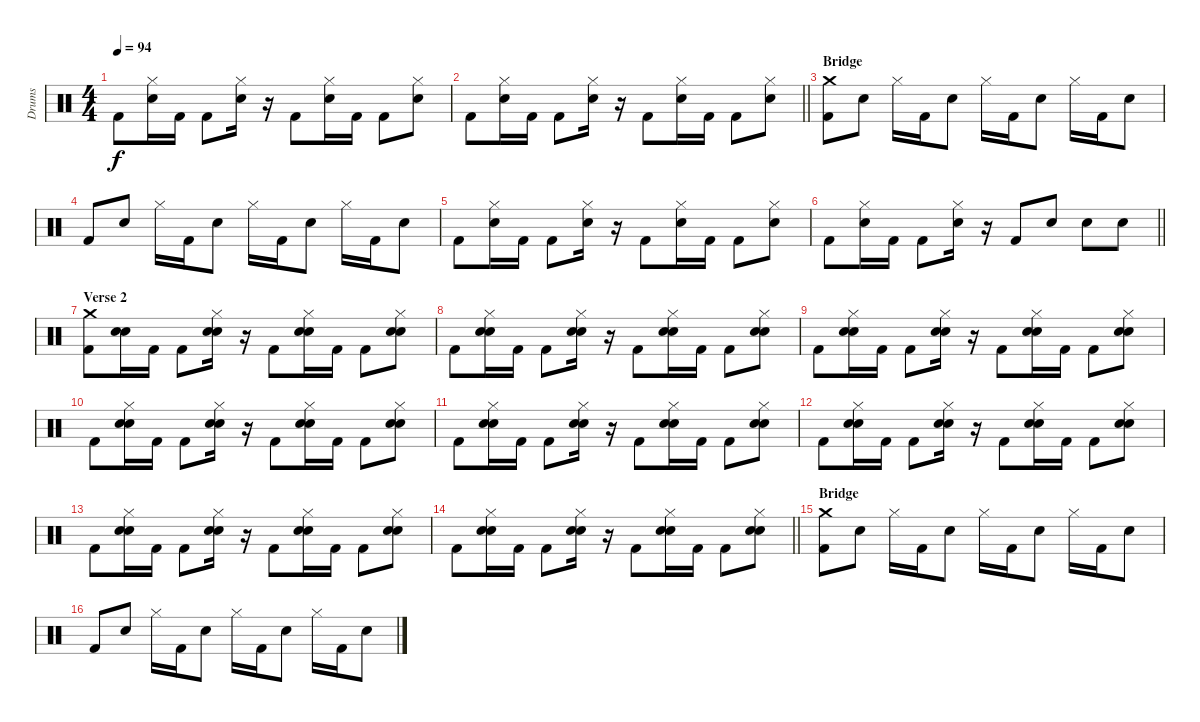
\track ("Drums" "Drums") {instrument percussion}
\staff {score}
\articulation defaults
\ts (4 4)
\tempo 94
\clef neutral
\ks c "Kick (hit) 2".8{dy f}
("Hi-Hat (closed)" "Electric Snare (hit)").16 "Kick (hit) 2".16 "Kick (hit) 2".8 ("Hi-Hat (closed)" "Electric Snare (hit)").16 r.16 "Kick (hit) 2".8 ("Hi-Hat (closed)" "Electric Snare (hit)").16 "Kick (hit) 2".16 "Kick (hit) 2".8 ("Hi-Hat (closed)" "Electric Snare (hit)").8 |
\barLineRight lightlight "Kick (hit) 2".8
("Hi-Hat (closed)" "Electric Snare (hit)").16 "Kick (hit) 2".16 "Kick (hit) 2".8 ("Hi-Hat (closed)" "Electric Snare (hit)").16 r.16 "Kick (hit) 2".8 ("Hi-Hat (closed)" "Electric Snare (hit)").16 "Kick (hit) 2".16 "Kick (hit) 2".8 ("Hi-Hat (closed)" "Electric Snare (hit)").8 |
\section ("" "Bridge")
("Crash medium (hit)" "Kick (hit) 2").8 "Electric Snare (hit)".8 "Hi-Hat (closed)".16 "Kick (hit) 2".16 "Electric Snare (hit)".8 "Hi-Hat (closed)".16 "Kick (hit) 2".16 "Electric Snare (hit)".8 "Hi-Hat (closed)".16 "Kick (hit) 2".16 "Electric Snare (hit)".8 |
"Kick (hit) 2".8 "Electric Snare (hit)".8 "Hi-Hat (closed)".16 "Kick (hit) 2".16 "Electric Snare (hit)".8 "Hi-Hat (closed)".16 "Kick (hit) 2".16 "Electric Snare (hit)".8 "Hi-Hat (closed)".16 "Kick (hit) 2".16 "Electric Snare (hit)".8 |
"Kick (hit) 2".8 ("Hi-Hat (closed)" "Electric Snare (hit)").16 "Kick (hit) 2".16 "Kick (hit) 2".8 ("Hi-Hat (closed)" "Electric Snare (hit)").16 r.16 "Kick (hit) 2".8 ("Hi-Hat (closed)" "Electric Snare (hit)").16 "Kick (hit) 2".16 "Kick (hit) 2".8 ("Hi-Hat (closed)" "Electric Snare (hit)").8 |
\barLineRight lightlight "Kick (hit) 2".8
("Hi-Hat (closed)" "Electric Snare (hit)").16 "Kick (hit) 2".16 "Kick (hit) 2".8 ("Hi-Hat (closed)" "Electric Snare (hit)").16 r.16 "Kick (hit) 2".8 "Electric Snare (hit)".8 "Electric Snare (hit)".8 "Electric Snare (hit)".8 |
\section ("" "Verse 2")
("Crash medium (hit)" "Kick (hit) 2").8 ("Hand Clap (hit)" "Electric Snare (hit)").16 "Kick (hit) 2".16 "Kick (hit) 2".8 ("Hi-Hat (closed)" "Hand Clap (hit)" "Electric Snare (hit)").16 r.16 "Kick (hit) 2".8 ("Hi-Hat (closed)" "Hand Clap (hit)" "Electric Snare (hit)").16 "Kick (hit) 2".16 "Kick (hit) 2".8 ("Hi-Hat (closed)" "Hand Clap (hit)" "Electric Snare (hit)").8 |
"Kick (hit) 2".8 ("Hi-Hat (closed)" "Hand Clap (hit)" "Electric Snare (hit)").16 "Kick (hit) 2".16 "Kick (hit) 2".8 ("Hi-Hat (closed)" "Hand Clap (hit)" "Electric Snare (hit)").16 r.16 "Kick (hit) 2".8 ("Hi-Hat (closed)" "Hand Clap (hit)" "Electric Snare (hit)").16 "Kick (hit) 2".16 "Kick (hit) 2".8 ("Hi-Hat (closed)" "Hand Clap (hit)" "Electric Snare (hit)").8 |
"Kick (hit) 2".8 ("Hi-Hat (closed)" "Hand Clap (hit)" "Electric Snare (hit)").16 "Kick (hit) 2".16 "Kick (hit) 2".8 ("Hi-Hat (closed)" "Hand Clap (hit)" "Electric Snare (hit)").16 r.16 "Kick (hit) 2".8 ("Hi-Hat (closed)" "Hand Clap (hit)" "Electric Snare (hit)").16 "Kick (hit) 2".16 "Kick (hit) 2".8 ("Hi-Hat (closed)" "Hand Clap (hit)" "Electric Snare (hit)").8 |
"Kick (hit) 2".8 ("Hi-Hat (closed)" "Hand Clap (hit)" "Electric Snare (hit)").16 "Kick (hit) 2".16 "Kick (hit) 2".8 ("Hi-Hat (closed)" "Hand Clap (hit)" "Electric Snare (hit)").16 r.16 "Kick (hit) 2".8 ("Hi-Hat (closed)" "Hand Clap (hit)" "Electric Snare (hit)").16 "Kick (hit) 2".16 "Kick (hit) 2".8 ("Hi-Hat (closed)" "Hand Clap (hit)" "Electric Snare (hit)").8 |
"Kick (hit) 2".8 ("Hi-Hat (closed)" "Hand Clap (hit)" "Electric Snare (hit)").16 "Kick (hit) 2".16 "Kick (hit) 2".8 ("Hi-Hat (closed)" "Hand Clap (hit)" "Electric Snare (hit)").16 r.16 "Kick (hit) 2".8 ("Hi-Hat (closed)" "Hand Clap (hit)" "Electric Snare (hit)").16 "Kick (hit) 2".16 "Kick (hit) 2".8 ("Hi-Hat (closed)" "Hand Clap (hit)" "Electric Snare (hit)").8 |
"Kick (hit) 2".8 ("Hi-Hat (closed)" "Hand Clap (hit)" "Electric Snare (hit)").16 "Kick (hit) 2".16 "Kick (hit) 2".8 ("Hi-Hat (closed)" "Hand Clap (hit)" "Electric Snare (hit)").16 r.16 "Kick (hit) 2".8 ("Hi-Hat (closed)" "Hand Clap (hit)" "Electric Snare (hit)").16 "Kick (hit) 2".16 "Kick (hit) 2".8 ("Hi-Hat (closed)" "Hand Clap (hit)" "Electric Snare (hit)").8 |
"Kick (hit) 2".8 ("Hi-Hat (closed)" "Hand Clap (hit)" "Electric Snare (hit)").16 "Kick (hit) 2".16 "Kick (hit) 2".8 ("Hi-Hat (closed)" "Hand Clap (hit)" "Electric Snare (hit)").16 r.16 "Kick (hit) 2".8 ("Hi-Hat (closed)" "Hand Clap (hit)" "Electric Snare (hit)").16 "Kick (hit) 2".16 "Kick (hit) 2".8 ("Hi-Hat (closed)" "Hand Clap (hit)" "Electric Snare (hit)").8 |
\barLineRight lightlight "Kick (hit) 2".8
("Hi-Hat (closed)" "Hand Clap (hit)" "Electric Snare (hit)").16 "Kick (hit) 2".16 "Kick (hit) 2".8 ("Hi-Hat (closed)" "Hand Clap (hit)" "Electric Snare (hit)").16 r.16 "Kick (hit) 2".8 ("Hi-Hat (closed)" "Hand Clap (hit)" "Electric Snare (hit)").16 "Kick (hit) 2".16 "Kick (hit) 2".8 ("Hi-Hat (closed)" "Hand Clap (hit)" "Electric Snare (hit)").8 |
\section ("" "Bridge")
("Crash medium (hit)" "Kick (hit) 2").8 "Electric Snare (hit)".8 "Hi-Hat (closed)".16 "Kick (hit) 2".16 "Electric Snare (hit)".8 "Hi-Hat (closed)".16 "Kick (hit) 2".16 "Electric Snare (hit)".8 "Hi-Hat (closed)".16 "Kick (hit) 2".16 "Electric Snare (hit)".8 |
"Kick (hit) 2".8 "Electric Snare (hit)".8 "Hi-Hat (closed)".16 "Kick (hit) 2".16 "Electric Snare (hit)".8 "Hi-Hat (closed)".16 "Kick (hit) 2".16 "Electric Snare (hit)".8 "Hi-Hat (closed)".16 "Kick (hit) 2".16 "Electric Snare (hit)".8
